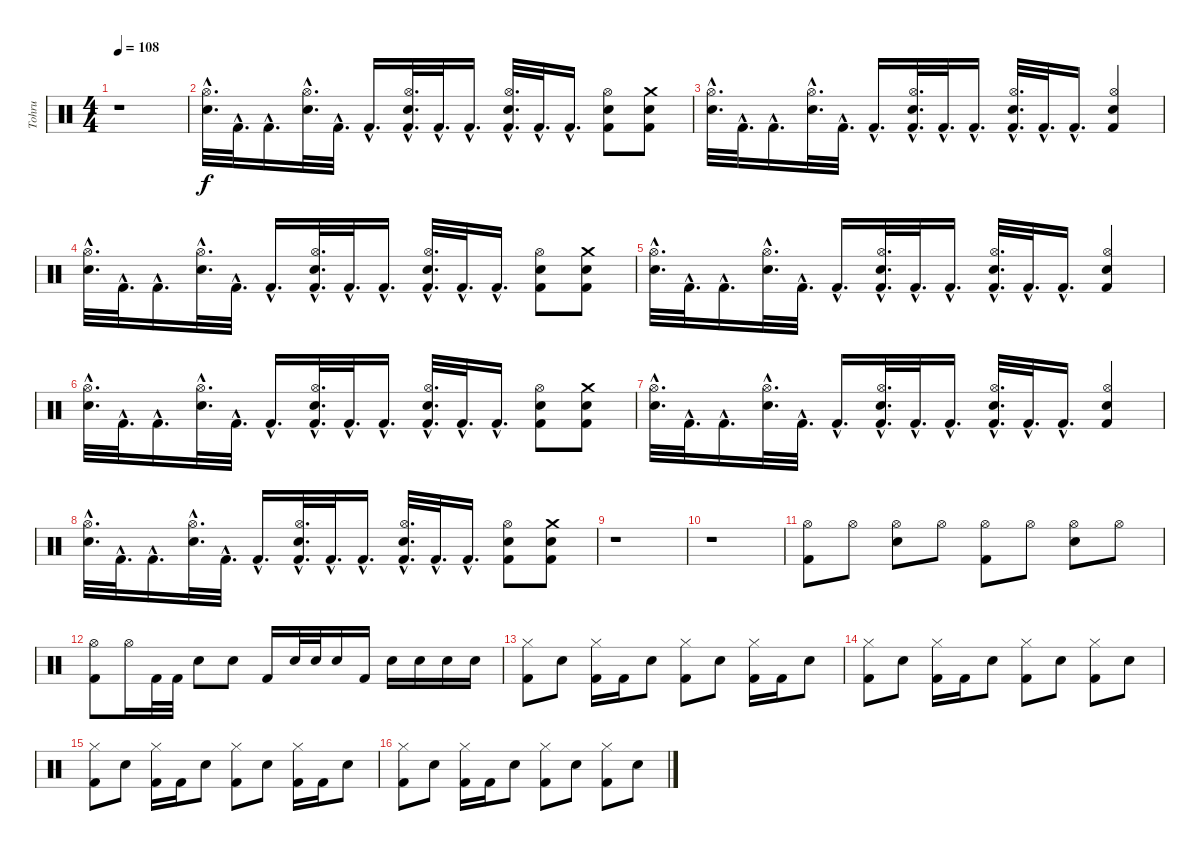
\track ("Tohru" "Tohru") {instrument percussion}
\staff {score}
\articulation defaults
\ts (4 4)
\tempo 108
\clef neutral
\ks c
r.1{dy f} |
("Electric Snare (hit)"{hac} "Hi-Hat (open)"{hac}).32{d} "Kick (hit) 2"{hac}.32{d} "Kick (hit) 2"{hac}.16{d} ("Electric Snare (hit)"{hac} "Hi-Hat (open)"{hac}).32{d} "Kick (hit) 2"{hac}.32{d} "Kick (hit) 2"{hac}.16{d} ("Electric Snare (hit)"{hac} "Kick (hit) 2"{hac} "Hi-Hat (open)"{hac}).32{d} "Kick (hit) 2"{hac}.32{d} "Kick (hit) 2"{hac}.16{d} ("Electric Snare (hit)"{hac} "Kick (hit) 2"{hac} "Hi-Hat (open)"{hac}).32{d} "Kick (hit) 2"{hac}.32{d} "Kick (hit) 2"{hac}.16{d} ("Electric Snare (hit)" "Kick (hit) 2" "Hi-Hat (open)").8 ("Electric Snare (hit)" "Kick (hit) 2" "Crash medium (hit)").8 |
("Electric Snare (hit)"{hac} "Hi-Hat (open)"{hac}).32{d} "Kick (hit) 2"{hac}.32{d} "Kick (hit) 2"{hac}.16{d} ("Electric Snare (hit)"{hac} "Hi-Hat (open)"{hac}).32{d} "Kick (hit) 2"{hac}.32{d} "Kick (hit) 2"{hac}.16{d} ("Electric Snare (hit)"{hac} "Kick (hit) 2"{hac} "Hi-Hat (open)"{hac}).32{d} "Kick (hit) 2"{hac}.32{d} "Kick (hit) 2"{hac}.16{d} ("Electric Snare (hit)"{hac} "Kick (hit) 2"{hac} "Hi-Hat (open)"{hac}).32{d} "Kick (hit) 2"{hac}.32{d} "Kick (hit) 2"{hac}.16{d} ("Electric Snare (hit)" "Kick (hit) 2" "Hi-Hat (open)").4 |
("Electric Snare (hit)"{hac} "Hi-Hat (open)"{hac}).32{d} "Kick (hit) 2"{hac}.32{d} "Kick (hit) 2"{hac}.16{d} ("Electric Snare (hit)"{hac} "Hi-Hat (open)"{hac}).32{d} "Kick (hit) 2"{hac}.32{d} "Kick (hit) 2"{hac}.16{d} ("Electric Snare (hit)"{hac} "Kick (hit) 2"{hac} "Hi-Hat (open)"{hac}).32{d} "Kick (hit) 2"{hac}.32{d} "Kick (hit) 2"{hac}.16{d} ("Electric Snare (hit)"{hac} "Kick (hit) 2"{hac} "Hi-Hat (open)"{hac}).32{d} "Kick (hit) 2"{hac}.32{d} "Kick (hit) 2"{hac}.16{d} ("Electric Snare (hit)" "Kick (hit) 2" "Hi-Hat (open)").8 ("Electric Snare (hit)" "Kick (hit) 2" "Crash medium (hit)").8 |
("Electric Snare (hit)"{hac} "Hi-Hat (open)"{hac}).32{d} "Kick (hit) 2"{hac}.32{d} "Kick (hit) 2"{hac}.16{d} ("Electric Snare (hit)"{hac} "Hi-Hat (open)"{hac}).32{d} "Kick (hit) 2"{hac}.32{d} "Kick (hit) 2"{hac}.16{d} ("Electric Snare (hit)"{hac} "Kick (hit) 2"{hac} "Hi-Hat (open)"{hac}).32{d} "Kick (hit) 2"{hac}.32{d} "Kick (hit) 2"{hac}.16{d} ("Electric Snare (hit)"{hac} "Kick (hit) 2"{hac} "Hi-Hat (open)"{hac}).32{d} "Kick (hit) 2"{hac}.32{d} "Kick (hit) 2"{hac}.16{d} ("Electric Snare (hit)" "Kick (hit) 2" "Hi-Hat (open)").4 |
("Electric Snare (hit)"{hac} "Hi-Hat (open)"{hac}).32{d} "Kick (hit) 2"{hac}.32{d} "Kick (hit) 2"{hac}.16{d} ("Electric Snare (hit)"{hac} "Hi-Hat (open)"{hac}).32{d} "Kick (hit) 2"{hac}.32{d} "Kick (hit) 2"{hac}.16{d} ("Electric Snare (hit)"{hac} "Kick (hit) 2"{hac} "Hi-Hat (open)"{hac}).32{d} "Kick (hit) 2"{hac}.32{d} "Kick (hit) 2"{hac}.16{d} ("Electric Snare (hit)"{hac} "Kick (hit) 2"{hac} "Hi-Hat (open)"{hac}).32{d} "Kick (hit) 2"{hac}.32{d} "Kick (hit) 2"{hac}.16{d} ("Electric Snare (hit)" "Kick (hit) 2" "Hi-Hat (open)").8 ("Electric Snare (hit)" "Kick (hit) 2" "Crash medium (hit)").8 |
("Electric Snare (hit)"{hac} "Hi-Hat (open)"{hac}).32{d} "Kick (hit) 2"{hac}.32{d} "Kick (hit) 2"{hac}.16{d} ("Electric Snare (hit)"{hac} "Hi-Hat (open)"{hac}).32{d} "Kick (hit) 2"{hac}.32{d} "Kick (hit) 2"{hac}.16{d} ("Electric Snare (hit)"{hac} "Kick (hit) 2"{hac} "Hi-Hat (open)"{hac}).32{d} "Kick (hit) 2"{hac}.32{d} "Kick (hit) 2"{hac}.16{d} ("Electric Snare (hit)"{hac} "Kick (hit) 2"{hac} "Hi-Hat (open)"{hac}).32{d} "Kick (hit) 2"{hac}.32{d} "Kick (hit) 2"{hac}.16{d} ("Electric Snare (hit)" "Kick (hit) 2" "Hi-Hat (open)").4 |
("Electric Snare (hit)"{hac} "Hi-Hat (open)"{hac}).32{d} "Kick (hit) 2"{hac}.32{d} "Kick (hit) 2"{hac}.16{d} ("Electric Snare (hit)"{hac} "Hi-Hat (open)"{hac}).32{d} "Kick (hit) 2"{hac}.32{d} "Kick (hit) 2"{hac}.16{d} ("Electric Snare (hit)"{hac} "Kick (hit) 2"{hac} "Hi-Hat (open)"{hac}).32{d} "Kick (hit) 2"{hac}.32{d} "Kick (hit) 2"{hac}.16{d} ("Electric Snare (hit)"{hac} "Kick (hit) 2"{hac} "Hi-Hat (open)"{hac}).32{d} "Kick (hit) 2"{hac}.32{d} "Kick (hit) 2"{hac}.16{d} ("Electric Snare (hit)" "Kick (hit) 2" "Hi-Hat (open)").8 ("Electric Snare (hit)" "Kick (hit) 2" "Crash medium (hit)").8 |
r.1 |
r.1 |
("Kick (hit) 2" "Hi-Hat (open)").8 "Hi-Hat (open)".8 ("Electric Snare (hit)" "Hi-Hat (open)").8 "Hi-Hat (open)".8 ("Kick (hit) 2" "Hi-Hat (open)").8 "Hi-Hat (open)".8 ("Electric Snare (hit)" "Hi-Hat (open)").8 "Hi-Hat (open)".8 |
("Kick (hit) 2" "Hi-Hat (open)").8 "Hi-Hat (open)".16 "Kick (hit) 2".32 "Kick (hit) 2".32 "Electric Snare (hit)".8 "Electric Snare (hit)".8 "Kick (hit) 2".16 "Electric Snare (hit)".32 "Electric Snare (hit)".32 "Electric Snare (hit)".16 "Kick (hit) 2".16 "Electric Snare (hit)".16 "Electric Snare (hit)".16 "Electric Snare (hit)".16 "Electric Snare (hit)".16 |
("Hi-Hat (closed)" "Kick (hit) 2").8 "Electric Snare (hit)".8 ("Hi-Hat (closed)" "Kick (hit) 2").16 "Kick (hit) 2".16 "Electric Snare (hit)".8 ("Hi-Hat (closed)" "Kick (hit) 2").8 "Electric Snare (hit)".8 ("Hi-Hat (closed)" "Kick (hit) 2").16 "Kick (hit) 2".16 "Electric Snare (hit)".8 |
("Hi-Hat (closed)" "Kick (hit) 2").8 "Electric Snare (hit)".8 ("Hi-Hat (closed)" "Kick (hit) 2").16 "Kick (hit) 2".16 "Electric Snare (hit)".8 ("Hi-Hat (closed)" "Kick (hit) 2").8 "Electric Snare (hit)".8 ("Kick (hit) 2" "Hi-Hat (closed)").8 "Electric Snare (hit)".8 |
("Hi-Hat (closed)" "Kick (hit) 2").8 "Electric Snare (hit)".8 ("Hi-Hat (closed)" "Kick (hit) 2").16 "Kick (hit) 2".16 "Electric Snare (hit)".8 ("Hi-Hat (closed)" "Kick (hit) 2").8 "Electric Snare (hit)".8 ("Hi-Hat (closed)" "Kick (hit) 2").16 "Kick (hit) 2".16 "Electric Snare (hit)".8 |
("Hi-Hat (closed)" "Kick (hit) 2").8 "Electric Snare (hit)".8 ("Hi-Hat (closed)" "Kick (hit) 2").16 "Kick (hit) 2".16 "Electric Snare (hit)".8 ("Hi-Hat (closed)" "Kick (hit) 2").8 "Electric Snare (hit)".8 ("Kick (hit) 2" "Hi-Hat (closed)").8 "Electric Snare (hit)".8
